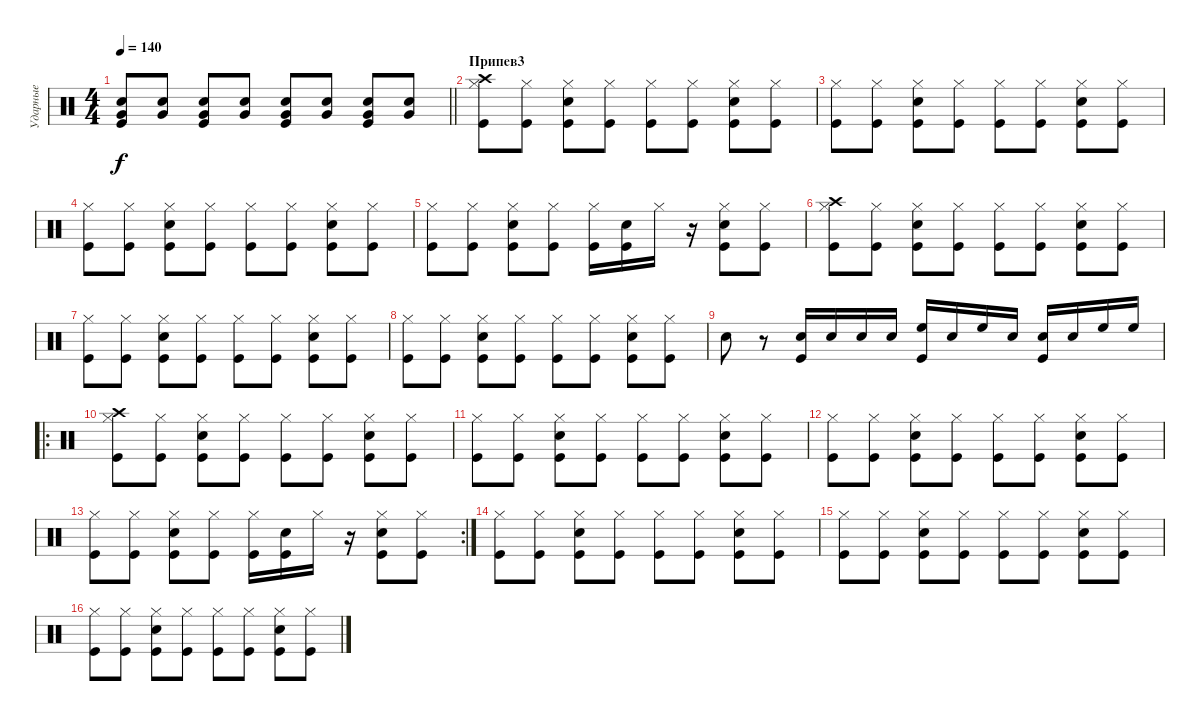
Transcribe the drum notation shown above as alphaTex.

\track ("Ударные" "Ударные") {instrument percussion}
\staff {score}
\articulation defaults
\ts (4 4)
\tempo 140
\clef neutral
\barLineRight lightlight
\ks c
("Kick (hit)" "Snare (hit) 2" "Very Low Tom (hit)").8{dy f} ("Snare (hit) 2" "Very Low Tom (hit)").8 ("Kick (hit)" "Snare (hit) 2" "Very Low Tom (hit)").8 ("Snare (hit) 2" "Very Low Tom (hit)").8 ("Kick (hit)" "Snare (hit) 2" "Very Low Tom (hit)").8 ("Snare (hit) 2" "Very Low Tom (hit)").8 ("Kick (hit)" "Snare (hit) 2" "Very Low Tom (hit)").8 ("Snare (hit) 2" "Very Low Tom (hit)").8 |
\section ("" "Припев3")
("Hi-Hat (closed)" "Kick (hit)" "Crash high (hit)").8 ("Hi-Hat (closed)" "Kick (hit)").8 ("Hi-Hat (closed)" "Kick (hit)" "Snare (hit) 2").8 ("Hi-Hat (closed)" "Kick (hit)").8 ("Hi-Hat (closed)" "Kick (hit)").8 ("Hi-Hat (closed)" "Kick (hit)").8 ("Hi-Hat (closed)" "Kick (hit)" "Snare (hit) 2").8 ("Hi-Hat (closed)" "Kick (hit)").8 |
("Hi-Hat (closed)" "Kick (hit)").8 ("Hi-Hat (closed)" "Kick (hit)").8 ("Hi-Hat (closed)" "Kick (hit)" "Snare (hit) 2").8 ("Hi-Hat (closed)" "Kick (hit)").8 ("Hi-Hat (closed)" "Kick (hit)").8 ("Hi-Hat (closed)" "Kick (hit)").8 ("Hi-Hat (closed)" "Kick (hit)" "Snare (hit) 2").8 ("Hi-Hat (closed)" "Kick (hit)").8 |
("Hi-Hat (closed)" "Kick (hit)").8 ("Hi-Hat (closed)" "Kick (hit)").8 ("Hi-Hat (closed)" "Kick (hit)" "Snare (hit) 2").8 ("Hi-Hat (closed)" "Kick (hit)").8 ("Hi-Hat (closed)" "Kick (hit)").8 ("Hi-Hat (closed)" "Kick (hit)").8 ("Hi-Hat (closed)" "Kick (hit)" "Snare (hit) 2").8 ("Hi-Hat (closed)" "Kick (hit)").8 |
("Hi-Hat (closed)" "Kick (hit)").8 ("Hi-Hat (closed)" "Kick (hit)").8 ("Hi-Hat (closed)" "Kick (hit)" "Snare (hit) 2").8 ("Hi-Hat (closed)" "Kick (hit)").8 ("Hi-Hat (closed)" "Kick (hit)").16 ("Kick (hit)" "Snare (hit) 2").16 "Hi-Hat (closed)".16 r.16 ("Hi-Hat (closed)" "Kick (hit)" "Snare (hit) 2").8 ("Hi-Hat (closed)" "Kick (hit)").8 |
("Hi-Hat (closed)" "Kick (hit)" "Crash high (hit)").8 ("Hi-Hat (closed)" "Kick (hit)").8 ("Hi-Hat (closed)" "Kick (hit)" "Snare (hit) 2").8 ("Hi-Hat (closed)" "Kick (hit)").8 ("Hi-Hat (closed)" "Kick (hit)").8 ("Hi-Hat (closed)" "Kick (hit)").8 ("Hi-Hat (closed)" "Kick (hit)" "Snare (hit) 2").8 ("Hi-Hat (closed)" "Kick (hit)").8 |
("Hi-Hat (closed)" "Kick (hit)").8 ("Hi-Hat (closed)" "Kick (hit)").8 ("Hi-Hat (closed)" "Kick (hit)" "Snare (hit) 2").8 ("Hi-Hat (closed)" "Kick (hit)").8 ("Hi-Hat (closed)" "Kick (hit)").8 ("Hi-Hat (closed)" "Kick (hit)").8 ("Hi-Hat (closed)" "Kick (hit)" "Snare (hit) 2").8 ("Hi-Hat (closed)" "Kick (hit)").8 |
("Hi-Hat (closed)" "Kick (hit)").8 ("Hi-Hat (closed)" "Kick (hit)").8 ("Hi-Hat (closed)" "Kick (hit)" "Snare (hit) 2").8 ("Hi-Hat (closed)" "Kick (hit)").8 ("Hi-Hat (closed)" "Kick (hit)").8 ("Hi-Hat (closed)" "Kick (hit)").8 ("Hi-Hat (closed)" "Kick (hit)" "Snare (hit) 2").8 ("Hi-Hat (closed)" "Kick (hit)").8 |
"Snare (hit) 2".8 r.8 ("Snare (hit) 2" "Kick (hit)").16 "Snare (hit) 2".16 "Snare (hit) 2".16 "Snare (hit) 2".16 ("High Floor Tom (hit)" "Kick (hit)").16 "Snare (hit) 2".16 "High Floor Tom (hit)".16 "Snare (hit) 2".16 ("Snare (hit) 2" "Kick (hit)").16 "Snare (hit) 2".16 "High Floor Tom (hit)".16 "High Floor Tom (hit)".16 |
\ro
("Hi-Hat (closed)" "Kick (hit)" "Crash high (hit)").8 ("Hi-Hat (closed)" "Kick (hit)").8 ("Hi-Hat (closed)" "Kick (hit)" "Snare (hit) 2").8 ("Hi-Hat (closed)" "Kick (hit)").8 ("Hi-Hat (closed)" "Kick (hit)").8 ("Hi-Hat (closed)" "Kick (hit)").8 ("Hi-Hat (closed)" "Kick (hit)" "Snare (hit) 2").8 ("Hi-Hat (closed)" "Kick (hit)").8 |
("Hi-Hat (closed)" "Kick (hit)").8 ("Hi-Hat (closed)" "Kick (hit)").8 ("Hi-Hat (closed)" "Kick (hit)" "Snare (hit) 2").8 ("Hi-Hat (closed)" "Kick (hit)").8 ("Hi-Hat (closed)" "Kick (hit)").8 ("Hi-Hat (closed)" "Kick (hit)").8 ("Hi-Hat (closed)" "Kick (hit)" "Snare (hit) 2").8 ("Hi-Hat (closed)" "Kick (hit)").8 |
("Hi-Hat (closed)" "Kick (hit)").8 ("Hi-Hat (closed)" "Kick (hit)").8 ("Hi-Hat (closed)" "Kick (hit)" "Snare (hit) 2").8 ("Hi-Hat (closed)" "Kick (hit)").8 ("Hi-Hat (closed)" "Kick (hit)").8 ("Hi-Hat (closed)" "Kick (hit)").8 ("Hi-Hat (closed)" "Kick (hit)" "Snare (hit) 2").8 ("Hi-Hat (closed)" "Kick (hit)").8 |
\rc 2
("Hi-Hat (closed)" "Kick (hit)").8 ("Hi-Hat (closed)" "Kick (hit)").8 ("Hi-Hat (closed)" "Kick (hit)" "Snare (hit) 2").8 ("Hi-Hat (closed)" "Kick (hit)").8 ("Hi-Hat (closed)" "Kick (hit)").16 ("Kick (hit)" "Snare (hit) 2").16 "Hi-Hat (closed)".16 r.16 ("Hi-Hat (closed)" "Kick (hit)" "Snare (hit) 2").8 ("Hi-Hat (closed)" "Kick (hit)").8 |
("Hi-Hat (closed)" "Kick (hit)").8 ("Hi-Hat (closed)" "Kick (hit)").8 ("Hi-Hat (closed)" "Kick (hit)" "Snare (hit) 2").8 ("Hi-Hat (closed)" "Kick (hit)").8 ("Hi-Hat (closed)" "Kick (hit)").8 ("Hi-Hat (closed)" "Kick (hit)").8 ("Hi-Hat (closed)" "Kick (hit)" "Snare (hit) 2").8 ("Hi-Hat (closed)" "Kick (hit)").8 |
("Hi-Hat (closed)" "Kick (hit)").8 ("Hi-Hat (closed)" "Kick (hit)").8 ("Hi-Hat (closed)" "Kick (hit)" "Snare (hit) 2").8 ("Hi-Hat (closed)" "Kick (hit)").8 ("Hi-Hat (closed)" "Kick (hit)").8 ("Hi-Hat (closed)" "Kick (hit)").8 ("Hi-Hat (closed)" "Kick (hit)" "Snare (hit) 2").8 ("Hi-Hat (closed)" "Kick (hit)").8 |
("Hi-Hat (closed)" "Kick (hit)").8 ("Hi-Hat (closed)" "Kick (hit)").8 ("Hi-Hat (closed)" "Kick (hit)" "Snare (hit) 2").8 ("Hi-Hat (closed)" "Kick (hit)").8 ("Hi-Hat (closed)" "Kick (hit)").8 ("Hi-Hat (closed)" "Kick (hit)").8 ("Hi-Hat (closed)" "Kick (hit)" "Snare (hit) 2").8 ("Hi-Hat (closed)" "Kick (hit)").8
